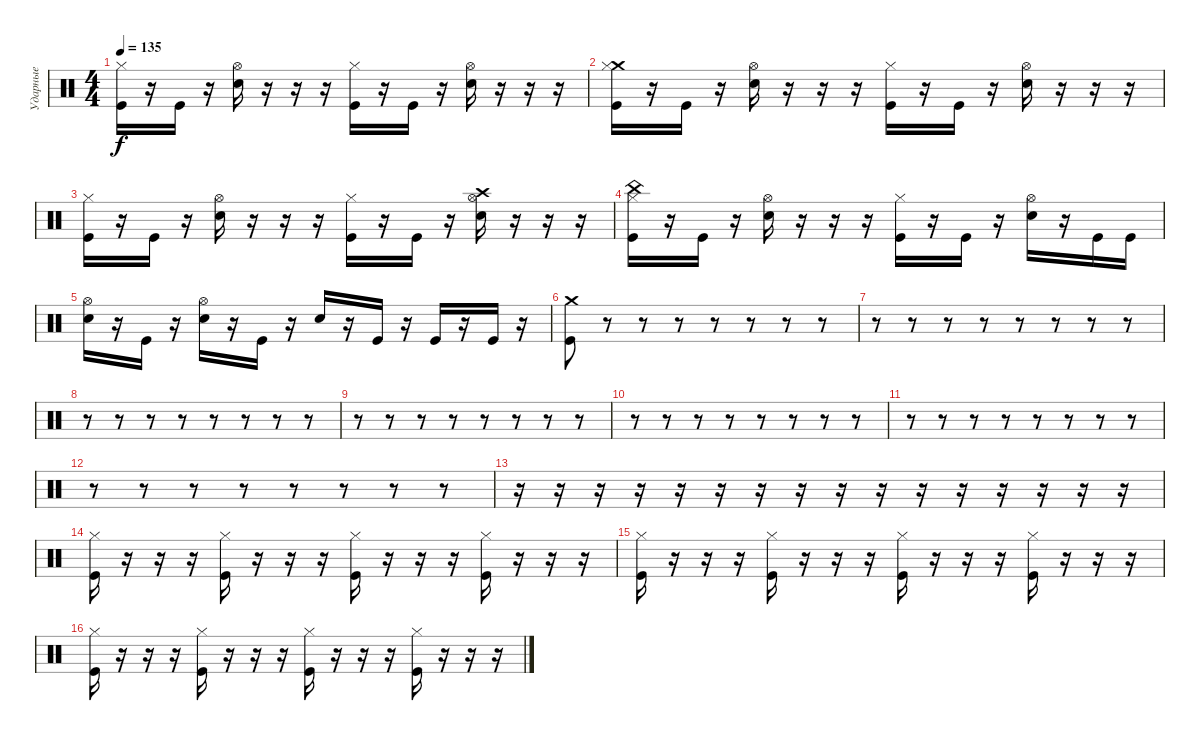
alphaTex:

\track ("Ударные" "Ударные") {instrument percussion}
\staff {score}
\articulation defaults
\ts (4 4)
\tempo 135
\clef neutral
\ks c
("Kick (hit)" "Hi-Hat (closed)").16{dy f} r.16 "Kick (hit)".16 r.16 ("Electric Snare (hit)" "Hi-Hat (open)").16 r.16 r.16 r.16 ("Kick (hit)" "Hi-Hat (closed)").16 r.16 "Kick (hit)".16 r.16 ("Electric Snare (hit)" "Hi-Hat (open)").16 r.16 r.16 r.16 |
("Crash medium (hit)" "Kick (hit)" "Hi-Hat (closed)").16 r.16 "Kick (hit)".16 r.16 ("Electric Snare (hit)" "Hi-Hat (open)").16 r.16 r.16 r.16 ("Kick (hit)" "Hi-Hat (closed)").16 r.16 "Kick (hit)".16 r.16 ("Electric Snare (hit)" "Hi-Hat (open)").16 r.16 r.16 r.16 |
("Kick (hit)" "Hi-Hat (closed)").16 r.16 "Kick (hit)".16 r.16 ("Electric Snare (hit)" "Hi-Hat (open)").16 r.16 r.16 r.16 ("Kick (hit)" "Hi-Hat (closed)").16 r.16 "Kick (hit)".16 r.16 ("Crash high (hit)" "Electric Snare (hit)" "Hi-Hat (open)").16 r.16 r.16 r.16 |
("China (hit)" "Kick (hit)" "Hi-Hat (closed)").16 r.16 "Kick (hit)".16 r.16 ("Electric Snare (hit)" "Hi-Hat (open)").16 r.16 r.16 r.16 ("Kick (hit)" "Hi-Hat (closed)").16 r.16 "Kick (hit)".16 r.16 ("Electric Snare (hit)" "Hi-Hat (open)").16 r.16 "Kick (hit)".16 "Kick (hit)".16 |
("Electric Snare (hit)" "Hi-Hat (open)").16 r.16 "Kick (hit)".16 r.16 ("Electric Snare (hit)" "Hi-Hat (open)").16 r.16 "Kick (hit)".16 r.16 "Electric Snare (hit)".16 r.16 "Kick (hit)".16 r.16 "Kick (hit)".16 r.16 "Kick (hit)".16 r.16 |
("Crash medium (hit)" "Kick (hit)").8 r.8 r.8 r.8 r.8 r.8 r.8 r.8 |
r.8 r.8 r.8 r.8 r.8 r.8 r.8 r.8 |
r.8 r.8 r.8 r.8 r.8 r.8 r.8 r.8 |
r.8 r.8 r.8 r.8 r.8 r.8 r.8 r.8 |
r.8 r.8 r.8 r.8 r.8 r.8 r.8 r.8 |
r.8 r.8 r.8 r.8 r.8 r.8 r.8 r.8 |
r.8 r.8 r.8 r.8 r.8 r.8 r.8 r.8 |
r.16 r.16 r.16 r.16 r.16 r.16 r.16 r.16 r.16 r.16 r.16 r.16 r.16 r.16 r.16 r.16 |
("Hi-Hat (closed)" "Kick (hit)").16 r.16 r.16 r.16 ("Hi-Hat (closed)" "Kick (hit)").16 r.16 r.16 r.16 ("Hi-Hat (closed)" "Kick (hit)").16 r.16 r.16 r.16 ("Hi-Hat (closed)" "Kick (hit)").16 r.16 r.16 r.16 |
("Hi-Hat (closed)" "Kick (hit)").16 r.16 r.16 r.16 ("Hi-Hat (closed)" "Kick (hit)").16 r.16 r.16 r.16 ("Hi-Hat (closed)" "Kick (hit)").16 r.16 r.16 r.16 ("Hi-Hat (closed)" "Kick (hit)").16 r.16 r.16 r.16 |
("Hi-Hat (closed)" "Kick (hit)").16 r.16 r.16 r.16 ("Hi-Hat (closed)" "Kick (hit)").16 r.16 r.16 r.16 ("Hi-Hat (closed)" "Kick (hit)").16 r.16 r.16 r.16 ("Hi-Hat (closed)" "Kick (hit)").16 r.16 r.16 r.16
